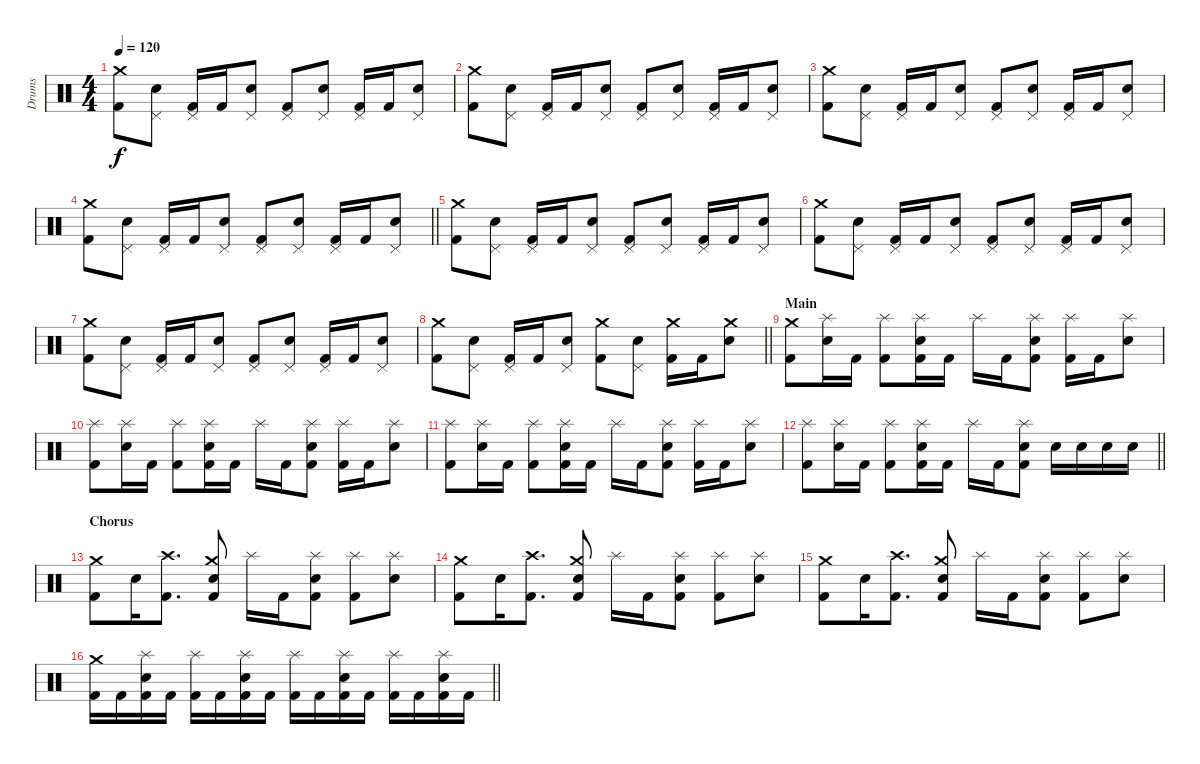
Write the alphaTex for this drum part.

\track ("Drums" "Drums") {instrument percussion}
\staff {score}
\articulation defaults
\ts (4 4)
\section ("" "")
\tempo 120
\clef neutral
\ks c
("Kick (hit) 2" "Crash medium (hit)").8{dy f} ("Snare (hit) 2" "Pedal Hi-Hat (hit)").8 ("Kick (hit) 2" "Pedal Hi-Hat (hit)").16 "Kick (hit) 2".16 ("Snare (hit) 2" "Pedal Hi-Hat (hit)").8 ("Kick (hit) 2" "Pedal Hi-Hat (hit)").8 ("Snare (hit) 2" "Pedal Hi-Hat (hit)").8 ("Kick (hit) 2" "Pedal Hi-Hat (hit)").16 "Kick (hit) 2".16 ("Snare (hit) 2" "Pedal Hi-Hat (hit)").8 |
("Kick (hit) 2" "Crash medium (hit)").8 ("Snare (hit) 2" "Pedal Hi-Hat (hit)").8 ("Kick (hit) 2" "Pedal Hi-Hat (hit)").16 "Kick (hit) 2".16 ("Snare (hit) 2" "Pedal Hi-Hat (hit)").8 ("Kick (hit) 2" "Pedal Hi-Hat (hit)").8 ("Snare (hit) 2" "Pedal Hi-Hat (hit)").8 ("Kick (hit) 2" "Pedal Hi-Hat (hit)").16 "Kick (hit) 2".16 ("Snare (hit) 2" "Pedal Hi-Hat (hit)").8 |
("Kick (hit) 2" "Crash medium (hit)").8 ("Snare (hit) 2" "Pedal Hi-Hat (hit)").8 ("Kick (hit) 2" "Pedal Hi-Hat (hit)").16 "Kick (hit) 2".16 ("Snare (hit) 2" "Pedal Hi-Hat (hit)").8 ("Kick (hit) 2" "Pedal Hi-Hat (hit)").8 ("Snare (hit) 2" "Pedal Hi-Hat (hit)").8 ("Kick (hit) 2" "Pedal Hi-Hat (hit)").16 "Kick (hit) 2".16 ("Snare (hit) 2" "Pedal Hi-Hat (hit)").8 |
\barLineRight lightlight
("Kick (hit) 2" "Crash medium (hit)").8 ("Snare (hit) 2" "Pedal Hi-Hat (hit)").8 ("Kick (hit) 2" "Pedal Hi-Hat (hit)").16 "Kick (hit) 2".16 ("Snare (hit) 2" "Pedal Hi-Hat (hit)").8 ("Kick (hit) 2" "Pedal Hi-Hat (hit)").8 ("Snare (hit) 2" "Pedal Hi-Hat (hit)").8 ("Kick (hit) 2" "Pedal Hi-Hat (hit)").16 "Kick (hit) 2".16 ("Snare (hit) 2" "Pedal Hi-Hat (hit)").8 |
\section ("" "")
("Kick (hit) 2" "Crash medium (hit)").8 ("Snare (hit) 2" "Pedal Hi-Hat (hit)").8 ("Kick (hit) 2" "Pedal Hi-Hat (hit)").16 "Kick (hit) 2".16 ("Snare (hit) 2" "Pedal Hi-Hat (hit)").8 ("Kick (hit) 2" "Pedal Hi-Hat (hit)").8 ("Snare (hit) 2" "Pedal Hi-Hat (hit)").8 ("Kick (hit) 2" "Pedal Hi-Hat (hit)").16 "Kick (hit) 2".16 ("Snare (hit) 2" "Pedal Hi-Hat (hit)").8 |
("Kick (hit) 2" "Crash medium (hit)").8 ("Snare (hit) 2" "Pedal Hi-Hat (hit)").8 ("Kick (hit) 2" "Pedal Hi-Hat (hit)").16 "Kick (hit) 2".16 ("Snare (hit) 2" "Pedal Hi-Hat (hit)").8 ("Kick (hit) 2" "Pedal Hi-Hat (hit)").8 ("Snare (hit) 2" "Pedal Hi-Hat (hit)").8 ("Kick (hit) 2" "Pedal Hi-Hat (hit)").16 "Kick (hit) 2".16 ("Snare (hit) 2" "Pedal Hi-Hat (hit)").8 |
("Kick (hit) 2" "Crash medium (hit)").8 ("Snare (hit) 2" "Pedal Hi-Hat (hit)").8 ("Kick (hit) 2" "Pedal Hi-Hat (hit)").16 "Kick (hit) 2".16 ("Snare (hit) 2" "Pedal Hi-Hat (hit)").8 ("Kick (hit) 2" "Pedal Hi-Hat (hit)").8 ("Snare (hit) 2" "Pedal Hi-Hat (hit)").8 ("Kick (hit) 2" "Pedal Hi-Hat (hit)").16 "Kick (hit) 2".16 ("Snare (hit) 2" "Pedal Hi-Hat (hit)").8 |
\barLineRight lightlight
("Kick (hit) 2" "Crash medium (hit)").8 ("Snare (hit) 2" "Pedal Hi-Hat (hit)").8 ("Kick (hit) 2" "Pedal Hi-Hat (hit)").16 "Kick (hit) 2".16 ("Snare (hit) 2" "Pedal Hi-Hat (hit)").8 ("Kick (hit) 2" "Crash medium (hit)").8 ("Snare (hit) 2" "Pedal Hi-Hat (hit)").8 ("Kick (hit) 2" "Crash medium (hit)").16 "Kick (hit) 2".16 ("Snare (hit) 2" "Crash medium (hit)").8 |
\section ("" "Main")
("Kick (hit) 2" "Crash medium (hit)").8{volume 13} ("Snare (hit) 2" "Splash (hit)").16 "Kick (hit) 2".16 ("Kick (hit) 2" "Splash (hit)").8 ("Kick (hit) 2" "Snare (hit) 2" "Splash (hit)").16 "Kick (hit) 2".16 "Splash (hit)".16 "Kick (hit) 2".16 ("Kick (hit) 2" "Snare (hit) 2" "Splash (hit)").8 ("Kick (hit) 2" "Splash (hit)").16 "Kick (hit) 2".16 ("Snare (hit) 2" "Splash (hit)").8 |
("Kick (hit) 2" "Splash (hit)").8 ("Snare (hit) 2" "Splash (hit)").16 "Kick (hit) 2".16 ("Kick (hit) 2" "Splash (hit)").8 ("Kick (hit) 2" "Snare (hit) 2" "Splash (hit)").16 "Kick (hit) 2".16 "Splash (hit)".16 "Kick (hit) 2".16 ("Kick (hit) 2" "Snare (hit) 2" "Splash (hit)").8 ("Kick (hit) 2" "Splash (hit)").16 "Kick (hit) 2".16 ("Snare (hit) 2" "Splash (hit)").8 |
("Kick (hit) 2" "Splash (hit)").8 ("Snare (hit) 2" "Splash (hit)").16 "Kick (hit) 2".16 ("Kick (hit) 2" "Splash (hit)").8 ("Kick (hit) 2" "Snare (hit) 2" "Splash (hit)").16 "Kick (hit) 2".16 "Splash (hit)".16 "Kick (hit) 2".16 ("Kick (hit) 2" "Snare (hit) 2" "Splash (hit)").8 ("Kick (hit) 2" "Splash (hit)").16 "Kick (hit) 2".16 ("Snare (hit) 2" "Splash (hit)").8 |
\barLineRight lightlight
("Kick (hit) 2" "Splash (hit)").8 ("Snare (hit) 2" "Splash (hit)").16 "Kick (hit) 2".16 ("Kick (hit) 2" "Splash (hit)").8 ("Kick (hit) 2" "Snare (hit) 2" "Splash (hit)").16 "Kick (hit) 2".16 "Splash (hit)".16 "Kick (hit) 2".16 ("Kick (hit) 2" "Snare (hit) 2" "Splash (hit)").8 "Snare (hit) 2".16 "Snare (hit) 2".16 "Snare (hit) 2".16 "Snare (hit) 2".16 |
\section ("" "Chorus")
("Kick (hit) 2" "Crash medium (hit)").8 "Snare (hit) 2".16 ("Kick (hit) 2" "Crash high (hit)").8{d} ("Kick (hit) 2" "Snare (hit) 2" "Crash medium (hit)").8 "Splash (hit)".16 "Kick (hit) 2".16 ("Kick (hit) 2" "Snare (hit) 2" "Splash (hit)").8 ("Kick (hit) 2" "Splash (hit)").8 ("Snare (hit) 2" "Splash (hit)").8 |
("Kick (hit) 2" "Crash medium (hit)").8 "Snare (hit) 2".16 ("Kick (hit) 2" "Crash high (hit)").8{d} ("Kick (hit) 2" "Snare (hit) 2" "Crash medium (hit)").8 "Splash (hit)".16 "Kick (hit) 2".16 ("Kick (hit) 2" "Snare (hit) 2" "Splash (hit)").8 ("Kick (hit) 2" "Splash (hit)").8 ("Snare (hit) 2" "Splash (hit)").8 |
("Kick (hit) 2" "Crash medium (hit)").8 "Snare (hit) 2".16 ("Kick (hit) 2" "Crash high (hit)").8{d} ("Kick (hit) 2" "Snare (hit) 2" "Crash medium (hit)").8 "Splash (hit)".16 "Kick (hit) 2".16 ("Kick (hit) 2" "Snare (hit) 2" "Splash (hit)").8 ("Kick (hit) 2" "Splash (hit)").8 ("Snare (hit) 2" "Splash (hit)").8 |
\barLineRight lightlight
("Kick (hit) 2" "Crash medium (hit)").16 "Kick (hit) 2".16 ("Kick (hit) 2" "Snare (hit) 2" "Splash (hit)").16 "Kick (hit) 2".16 ("Kick (hit) 2" "Splash (hit)").16 "Kick (hit) 2".16 ("Kick (hit) 2" "Snare (hit) 2" "Splash (hit)").16 "Kick (hit) 2".16 ("Kick (hit) 2" "Splash (hit)").16 "Kick (hit) 2".16 ("Kick (hit) 2" "Snare (hit) 2" "Splash (hit)").16 "Kick (hit) 2".16 ("Kick (hit) 2" "Splash (hit)").16 "Kick (hit) 2".16 ("Kick (hit) 2" "Snare (hit) 2" "Splash (hit)").16 "Kick (hit) 2".16
